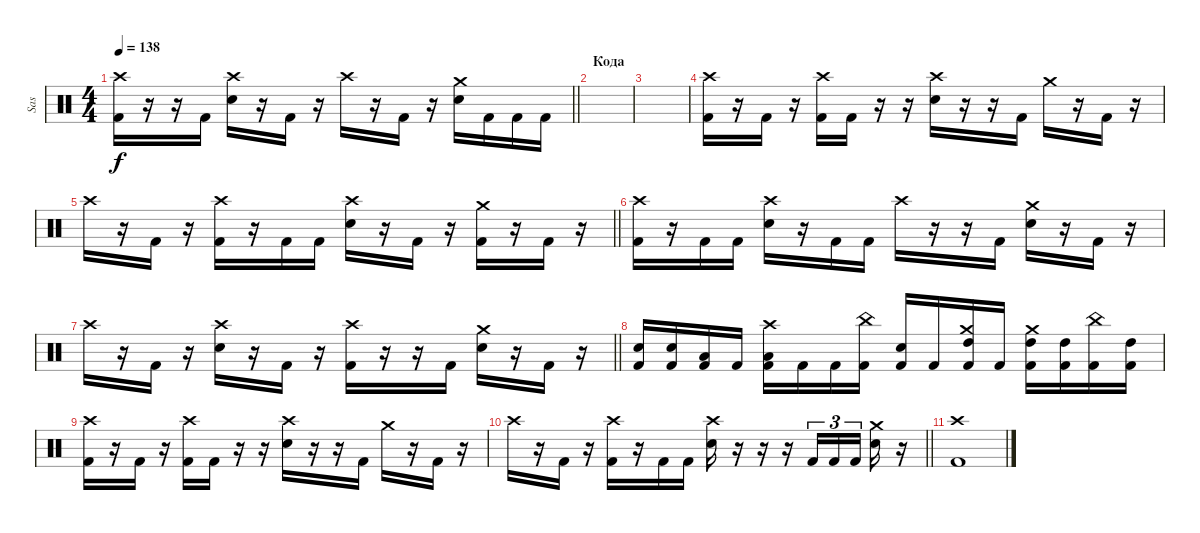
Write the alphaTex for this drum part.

\track ("Sas" "Sas") {instrument percussion}
\staff {score}
\articulation defaults
\ts (4 4)
\tempo 138
\clef neutral
\barLineRight lightlight
\ks c
("Crash high (hit)" "Kick (hit) 2").16{dy f} r.16 r.16 "Kick (hit) 2".16 ("Crash high (hit)" "Snare (hit) 2").16 r.16 "Kick (hit) 2".16 r.16 "Crash high (hit)".16 r.16 "Kick (hit) 2".16 r.16 ("Crash medium (hit)" "Snare (hit) 2").16 "Kick (hit) 2".16 "Kick (hit) 2".16 "Kick (hit) 2".16 |
\section ("" "Кода")
|
|
("Crash high (hit)" "Kick (hit) 2").16 r.16 "Kick (hit) 2".16 r.16 ("Crash high (hit)" "Kick (hit) 2").16 "Kick (hit) 2".16 r.16 r.16 ("Crash high (hit)" "Snare (hit) 2").16 r.16 r.16 "Kick (hit) 2".16 "Crash medium (hit)".16 r.16 "Kick (hit) 2".16 r.16 |
\barLineRight lightlight "Crash high (hit)".16
r.16 "Kick (hit) 2".16 r.16 ("Crash high (hit)" "Kick (hit) 2").16 r.16 "Kick (hit) 2".16 "Kick (hit) 2".16 ("Crash high (hit)" "Snare (hit) 2").16 r.16 "Kick (hit) 2".16 r.16 ("Crash medium (hit)" "Kick (hit) 2").16 r.16 "Kick (hit) 2".16 r.16 |
("Crash high (hit)" "Kick (hit) 2").16 r.16 "Kick (hit) 2".16 "Kick (hit) 2".16 ("Crash high (hit)" "Snare (hit) 2").16 r.16 "Kick (hit) 2".16 "Kick (hit) 2".16 "Crash high (hit)".16 r.16 r.16 "Kick (hit) 2".16 ("Crash medium (hit)" "Snare (hit) 2").16 r.16 "Kick (hit) 2".16 r.16 |
\barLineRight lightlight "Crash high (hit)".16
r.16 "Kick (hit) 2".16 r.16 ("Crash high (hit)" "Snare (hit) 2").16 r.16 "Kick (hit) 2".16 r.16 ("Crash high (hit)" "Kick (hit) 2").16 r.16 r.16 "Kick (hit) 2".16 ("Crash medium (hit)" "Snare (hit) 2").16 r.16 "Kick (hit) 2".16 r.16 |
("Snare (hit) 2" "Kick (hit) 2").16 ("Snare (hit) 2" "Kick (hit) 2").16 ("Low Tom (hit)" "Kick (hit) 2").16 "Kick (hit) 2".16 ("Crash high (hit)" "Low Tom (hit)" "Kick (hit) 2").16 "Kick (hit) 2".16 "Kick (hit) 2".16 ("China (hit)" "Kick (hit) 2").16 ("Snare (hit) 2" "Kick (hit) 2").16 "Kick (hit) 2".16 ("Crash medium (hit)" "High Tom (hit)" "Kick (hit) 2").16 "Kick (hit) 2".16 ("Crash medium (hit)" "High Tom (hit)" "Kick (hit) 2").16 ("High Tom (hit)" "Kick (hit) 2").16 ("China (hit)" "Kick (hit) 2").16 ("High Tom (hit)" "Kick (hit) 2").16 |
("Crash high (hit)" "Kick (hit) 2").16 r.16 "Kick (hit) 2".16 r.16 ("Crash high (hit)" "Kick (hit) 2").16 "Kick (hit) 2".16 r.16 r.16 ("Crash high (hit)" "Snare (hit) 2").16 r.16 r.16 "Kick (hit) 2".16 "Crash medium (hit)".16 r.16 "Kick (hit) 2".16 r.16 |
\barLineRight lightlight "Crash high (hit)".16
r.16 "Kick (hit) 2".16 r.16 ("Crash high (hit)" "Kick (hit) 2").16 r.16 "Kick (hit) 2".16 "Kick (hit) 2".16 ("Crash high (hit)" "Snare (hit) 2").16 r.16 r.16 r.16 "Kick (hit) 2".16{tu (3 2)} "Kick (hit) 2".16{tu (3 2)} "Kick (hit) 2".16{tu (3 2) beam splitsecondary} ("Crash medium (hit)" "Snare (hit) 2").16 r.16 |
("Crash high (hit)" "Kick (hit) 2").1
